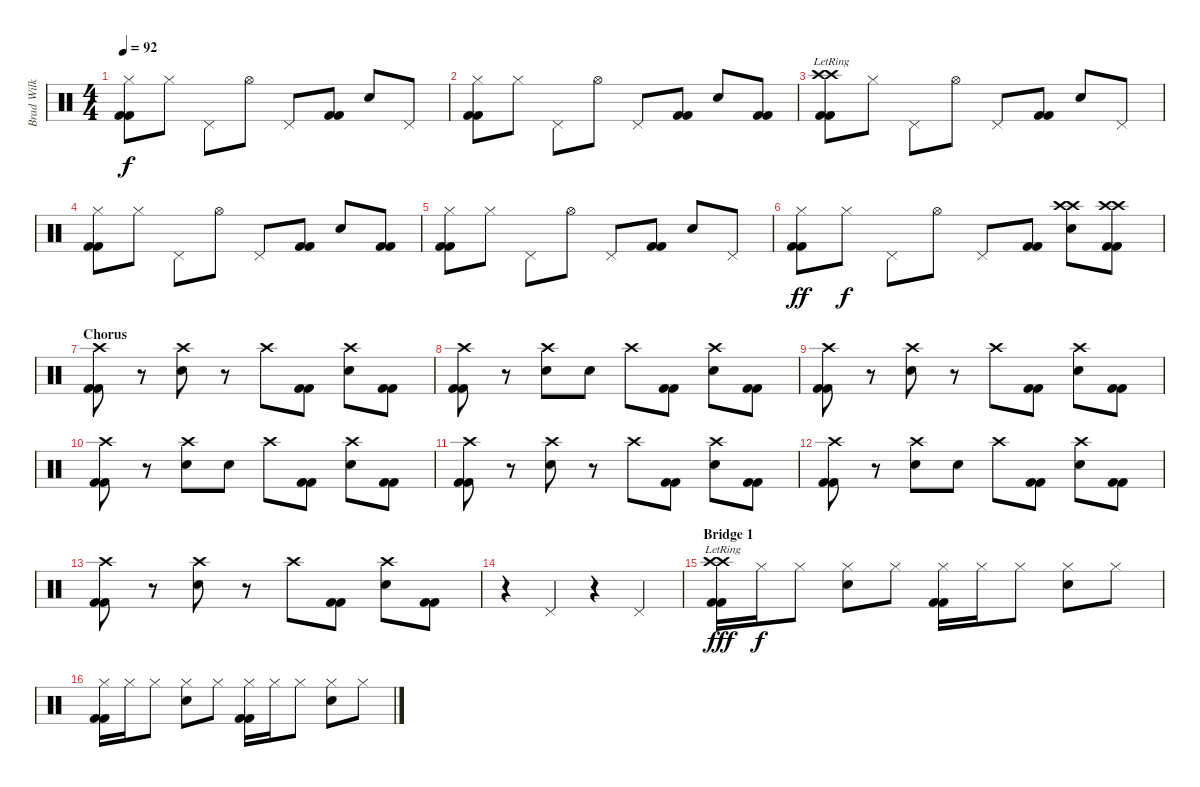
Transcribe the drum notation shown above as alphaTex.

\track ("Brad Wilk" "Brad Wilk") {instrument percussion}
\staff {score}
\articulation defaults
\ts (4 4)
\tempo 92
\clef neutral
\ks c
("Hi-Hat (closed)" "Kick (hit) 2" "Kick (hit) 2").8{dy f} "Hi-Hat (closed)".8 "Pedal Hi-Hat (hit)".8 "Hi-Hat (open)".8 "Pedal Hi-Hat (hit)".8 ("Kick (hit) 2" "Kick (hit) 2").8 "Electric Snare (hit)".8 "Pedal Hi-Hat (hit)".8 |
("Hi-Hat (closed)" "Kick (hit) 2" "Kick (hit) 2").8 "Hi-Hat (closed)".8 "Pedal Hi-Hat (hit)".8 "Hi-Hat (open)".8 "Pedal Hi-Hat (hit)".8 ("Kick (hit) 2" "Kick (hit) 2").8 "Electric Snare (hit)".8 ("Kick (hit) 2" "Kick (hit) 2").8 |
("Crash high (hit)"{lr} "Crash high (hit)"{lr} "Kick (hit) 2" "Kick (hit) 2").8 "Hi-Hat (closed)".8 "Pedal Hi-Hat (hit)".8 "Hi-Hat (open)".8 "Pedal Hi-Hat (hit)".8 ("Kick (hit) 2" "Kick (hit) 2").8 "Electric Snare (hit)".8 "Pedal Hi-Hat (hit)".8 |
("Hi-Hat (closed)" "Kick (hit) 2" "Kick (hit) 2").8 "Hi-Hat (closed)".8 "Pedal Hi-Hat (hit)".8 "Hi-Hat (open)".8 "Pedal Hi-Hat (hit)".8 ("Kick (hit) 2" "Kick (hit) 2").8 "Electric Snare (hit)".8 ("Kick (hit) 2" "Kick (hit) 2").8 |
("Hi-Hat (closed)" "Kick (hit) 2" "Kick (hit) 2").8 "Hi-Hat (closed)".8 "Pedal Hi-Hat (hit)".8 "Hi-Hat (open)".8 "Pedal Hi-Hat (hit)".8 ("Kick (hit) 2" "Kick (hit) 2").8 "Electric Snare (hit)".8 "Pedal Hi-Hat (hit)".8 |
("Hi-Hat (closed)" "Kick (hit) 2" "Kick (hit) 2").8{dy ff} "Hi-Hat (closed)".8{dy f} "Pedal Hi-Hat (hit)".8 "Hi-Hat (open)".8 "Pedal Hi-Hat (hit)".8 ("Kick (hit) 2" "Kick (hit) 2").8 ("Crash high (hit)" "Crash high (hit)" "Electric Snare (hit)").8 ("Crash high (hit)" "Crash high (hit)" "Kick (hit) 2" "Kick (hit) 2").8 |
\section ("" "Chorus")
("Crash high (hit)" "Kick (hit) 2" "Kick (hit) 2").8 r.8 ("Crash high (hit)" "Electric Snare (hit)").8 r.8 "Crash high (hit)".8 ("Kick (hit) 2" "Kick (hit) 2").8 ("Crash high (hit)" "Electric Snare (hit)").8 ("Kick (hit) 2" "Kick (hit) 2").8 |
("Crash high (hit)" "Kick (hit) 2" "Kick (hit) 2").8 r.8 ("Crash high (hit)" "Electric Snare (hit)").8 "Electric Snare (hit)".8 "Crash high (hit)".8 ("Kick (hit) 2" "Kick (hit) 2").8 ("Crash high (hit)" "Electric Snare (hit)").8 ("Kick (hit) 2" "Kick (hit) 2").8 |
("Crash high (hit)" "Kick (hit) 2" "Kick (hit) 2").8 r.8 ("Crash high (hit)" "Electric Snare (hit)").8 r.8 "Crash high (hit)".8 ("Kick (hit) 2" "Kick (hit) 2").8 ("Crash high (hit)" "Electric Snare (hit)").8 ("Kick (hit) 2" "Kick (hit) 2").8 |
("Crash high (hit)" "Kick (hit) 2" "Kick (hit) 2").8 r.8 ("Crash high (hit)" "Electric Snare (hit)").8 "Electric Snare (hit)".8 "Crash high (hit)".8 ("Kick (hit) 2" "Kick (hit) 2").8 ("Crash high (hit)" "Electric Snare (hit)").8 ("Kick (hit) 2" "Kick (hit) 2").8 |
("Crash high (hit)" "Kick (hit) 2" "Kick (hit) 2").8 r.8 ("Crash high (hit)" "Electric Snare (hit)").8 r.8 "Crash high (hit)".8 ("Kick (hit) 2" "Kick (hit) 2").8 ("Crash high (hit)" "Electric Snare (hit)").8 ("Kick (hit) 2" "Kick (hit) 2").8 |
("Crash high (hit)" "Kick (hit) 2" "Kick (hit) 2").8 r.8 ("Crash high (hit)" "Electric Snare (hit)").8 "Electric Snare (hit)".8 "Crash high (hit)".8 ("Kick (hit) 2" "Kick (hit) 2").8 ("Crash high (hit)" "Electric Snare (hit)").8 ("Kick (hit) 2" "Kick (hit) 2").8 |
("Crash high (hit)" "Kick (hit) 2" "Kick (hit) 2").8 r.8 ("Crash high (hit)" "Electric Snare (hit)").8 r.8 "Crash high (hit)".8 ("Kick (hit) 2" "Kick (hit) 2").8 ("Crash high (hit)" "Electric Snare (hit)").8 ("Kick (hit) 2" "Kick (hit) 2").8 |
r.4 "Pedal Hi-Hat (hit)".4 r.4 "Pedal Hi-Hat (hit)".4 |
\section ("" "Bridge 1")
("Crash high (hit)"{lr} "Crash high (hit)"{lr} "Kick (hit) 2" "Kick (hit) 2").16{dy fff} "Hi-Hat (closed)".16{dy f} "Hi-Hat (closed)".8 ("Hi-Hat (closed)" "Electric Snare (hit)").8 "Hi-Hat (closed)".8 ("Hi-Hat (closed)" "Kick (hit) 2" "Kick (hit) 2").16 "Hi-Hat (closed)".16 "Hi-Hat (closed)".8 ("Hi-Hat (closed)" "Snare (hit) 2").8 "Hi-Hat (closed)".8 |
("Hi-Hat (closed)" "Kick (hit) 2" "Kick (hit) 2").16 "Hi-Hat (closed)".16 "Hi-Hat (closed)".8 ("Hi-Hat (closed)" "Snare (hit) 2").8 "Hi-Hat (closed)".8 ("Hi-Hat (closed)" "Kick (hit) 2" "Kick (hit) 2").16 "Hi-Hat (closed)".16 "Hi-Hat (closed)".8 ("Hi-Hat (closed)" "Snare (hit) 2").8 "Hi-Hat (closed)".8
